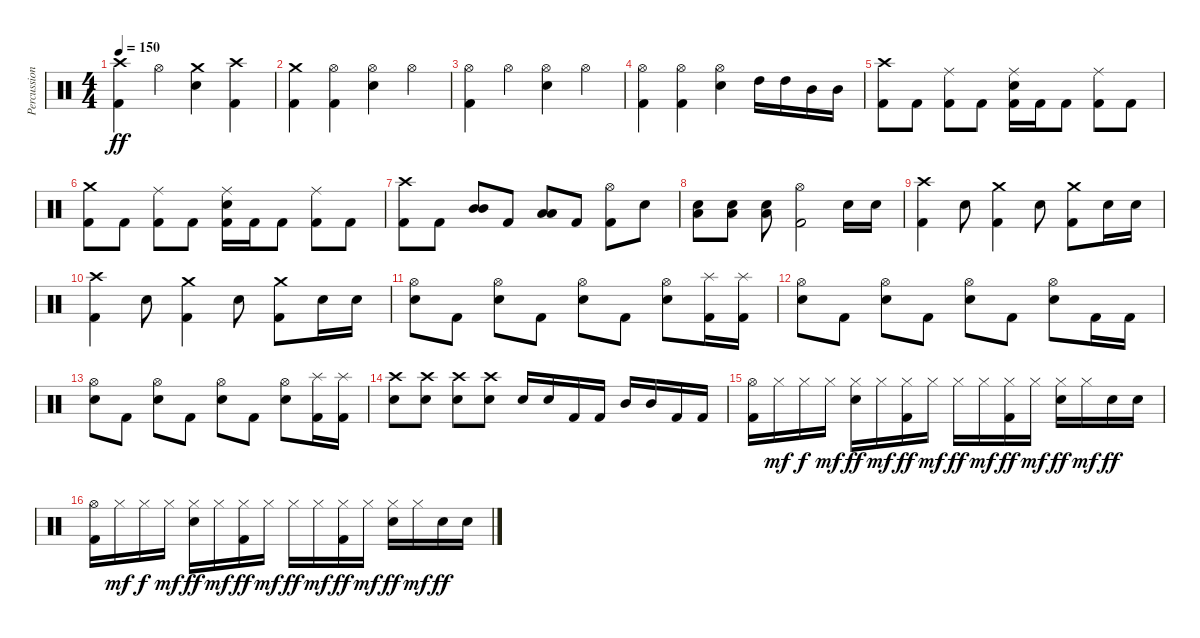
\track ("Percussion" "Percussion") {instrument percussion}
\staff {score}
\articulation defaults
\ts (4 4)
\tempo 150
\clef neutral
\ks c
("Crash high (hit)" "Kick (hit) 2").4{dy ff} "Hi-Hat (open)".4 ("Crash medium (hit)" "Snare (hit) 2").4 ("Crash high (hit)" "Kick (hit) 2").4 |
("Crash medium (hit)" "Kick (hit) 2").4 ("Hi-Hat (open)" "Kick (hit) 2").4 ("Hi-Hat (open)" "Snare (hit) 2").4 "Hi-Hat (open)".4 |
("Hi-Hat (open)" "Kick (hit) 2").4 "Hi-Hat (open)".4 ("Hi-Hat (open)" "Snare (hit) 2").4 "Hi-Hat (open)".4 |
("Hi-Hat (open)" "Kick (hit) 2").4 ("Hi-Hat (open)" "Kick (hit) 2").4 ("Hi-Hat (open)" "Snare (hit) 2").4 "High Tom (hit)".16 "High Tom (hit)".16 "Mid Tom (hit)".16 "Mid Tom (hit)".16 |
("Crash high (hit)" "Kick (hit) 2").8 "Kick (hit) 2".8 ("Ride (middle)" "Kick (hit) 2").8 "Kick (hit) 2".8 ("Ride (middle)" "Snare (hit) 2" "Kick (hit) 2").16 "Kick (hit) 2".16 "Kick (hit) 2".8 ("Ride (middle)" "Kick (hit) 2").8 "Kick (hit) 2".8 |
("Crash medium (hit)" "Kick (hit) 2").8 "Kick (hit) 2".8 ("Ride (middle)" "Kick (hit) 2").8 "Kick (hit) 2".8 ("Ride (middle)" "Snare (hit) 2" "Kick (hit) 2").16 "Kick (hit) 2".16 "Kick (hit) 2".8 ("Ride (middle)" "Kick (hit) 2").8 "Kick (hit) 2".8 |
("Crash high (hit)" "Kick (hit) 2").8 "Kick (hit) 2".8 ("Mid Tom (hit)" "Mid Tom (hit)").8 "Kick (hit) 2".8 ("Low Tom (hit)" "Low Tom (hit)").8 "Kick (hit) 2".8 ("Hi-Hat (open)" "Kick (hit) 2").8 "Snare (hit) 2".8 |
("Low Tom (hit)" "Snare (hit) 2").8 ("Low Tom (hit)" "Snare (hit) 2").8 ("Low Tom (hit)" "Snare (hit) 2").8 ("Hi-Hat (open)" "Kick (hit) 2").2 "Snare (hit) 2".16 "Snare (hit) 2".16 |
("Crash high (hit)" "Kick (hit) 2").4 "Snare (hit) 2".8 ("Crash medium (hit)" "Kick (hit) 2").4 "Snare (hit) 2".8 ("Crash medium (hit)" "Kick (hit) 2").8 "Snare (hit) 2".16 "Snare (hit) 2".16 |
("Crash high (hit)" "Kick (hit) 2").4 "Snare (hit) 2".8 ("Crash medium (hit)" "Kick (hit) 2").4 "Snare (hit) 2".8 ("Crash medium (hit)" "Kick (hit) 2").8 "Snare (hit) 2".16 "Snare (hit) 2".16 |
("Hi-Hat (open)" "Snare (hit) 2").8 "Kick (hit) 2".8 ("Hi-Hat (open)" "Snare (hit) 2").8 "Kick (hit) 2".8 ("Hi-Hat (open)" "Snare (hit) 2").8 "Kick (hit) 2".8 ("Hi-Hat (open)" "Snare (hit) 2").8 ("Splash (hit)" "Kick (hit) 2").16 ("Splash (hit)" "Kick (hit) 2").16 |
("Hi-Hat (open)" "Snare (hit) 2").8 "Kick (hit) 2".8 ("Hi-Hat (open)" "Snare (hit) 2").8 "Kick (hit) 2".8 ("Hi-Hat (open)" "Snare (hit) 2").8 "Kick (hit) 2".8 ("Hi-Hat (open)" "Snare (hit) 2").8 "Kick (hit) 2".16 "Kick (hit) 2".16 |
("Hi-Hat (open)" "Snare (hit) 2").8 "Kick (hit) 2".8 ("Hi-Hat (open)" "Snare (hit) 2").8 "Kick (hit) 2".8 ("Hi-Hat (open)" "Snare (hit) 2").8 "Kick (hit) 2".8 ("Hi-Hat (open)" "Snare (hit) 2").8 ("Splash (hit)" "Kick (hit) 2").16 ("Splash (hit)" "Kick (hit) 2").16 |
("Crash high (hit)" "Snare (hit) 2").8 ("Crash high (hit)" "Snare (hit) 2").8 ("Crash high (hit)" "Snare (hit) 2").8 ("Crash high (hit)" "Snare (hit) 2").8 "Snare (hit) 2".16 "Snare (hit) 2".16 "Kick (hit) 2".16 "Kick (hit) 2".16 "Mid Tom (hit)".16 "Mid Tom (hit)".16 "Kick (hit) 2".16 "Kick (hit) 2".16 |
("Hi-Hat (open)" "Kick (hit) 2").16 "Hi-Hat (closed)".16{dy mf} "Hi-Hat (closed)".16{dy f} "Hi-Hat (closed)".16{dy mf} ("Hi-Hat (closed)" "Snare (hit) 2").16{dy ff} "Hi-Hat (closed)".16{dy mf} ("Hi-Hat (closed)" "Kick (hit) 2").16{dy ff} "Hi-Hat (closed)".16{dy mf} "Hi-Hat (closed)".16{dy ff} "Hi-Hat (closed)".16{dy mf} ("Hi-Hat (closed)" "Kick (hit) 2").16{dy ff} "Hi-Hat (closed)".16{dy mf} ("Hi-Hat (closed)" "Snare (hit) 2").16{dy ff} "Hi-Hat (closed)".16{dy mf} "Snare (hit) 2".16{dy ff} "Snare (hit) 2".16 |
("Hi-Hat (open)" "Kick (hit) 2").16 "Hi-Hat (closed)".16{dy mf} "Hi-Hat (closed)".16{dy f} "Hi-Hat (closed)".16{dy mf} ("Hi-Hat (closed)" "Snare (hit) 2").16{dy ff} "Hi-Hat (closed)".16{dy mf} ("Hi-Hat (closed)" "Kick (hit) 2").16{dy ff} "Hi-Hat (closed)".16{dy mf} "Hi-Hat (closed)".16{dy ff} "Hi-Hat (closed)".16{dy mf} ("Hi-Hat (closed)" "Kick (hit) 2").16{dy ff} "Hi-Hat (closed)".16{dy mf} ("Hi-Hat (closed)" "Snare (hit) 2").16{dy ff} "Hi-Hat (closed)".16{dy mf} "Snare (hit) 2".16{dy ff} "Snare (hit) 2".16
